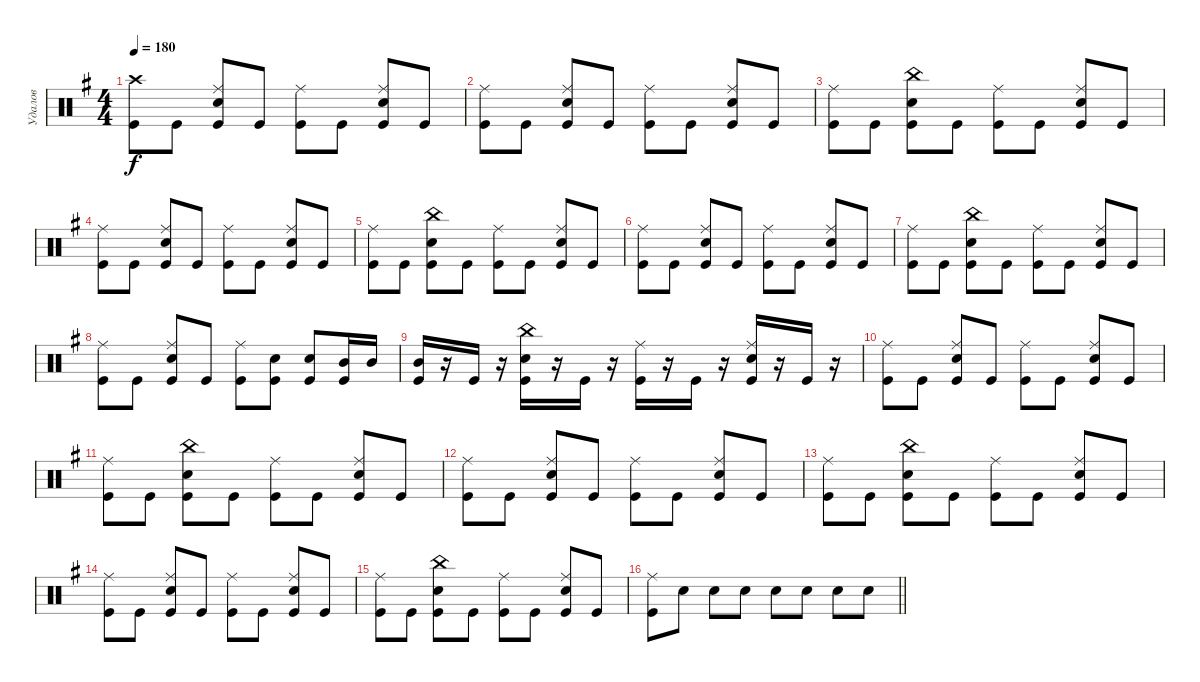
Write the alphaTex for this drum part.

\track ("Удалов" "Удалов") {instrument percussion}
\staff {score}
\articulation defaults
\ts (4 4)
\tempo 180
\clef neutral
\ks g
("Crash high (hit)" "Kick (hit)").8{dy f} "Kick (hit)".8 ("Ride (middle)" "Electric Snare (hit)" "Kick (hit)").8 "Kick (hit)".8 ("Ride (middle)" "Kick (hit)").8 "Kick (hit)".8 ("Ride (middle)" "Electric Snare (hit)" "Kick (hit)").8 "Kick (hit)".8 |
("Ride (middle)" "Kick (hit)").8 "Kick (hit)".8 ("Ride (middle)" "Electric Snare (hit)" "Kick (hit)").8 "Kick (hit)".8 ("Ride (middle)" "Kick (hit)").8 "Kick (hit)".8 ("Ride (middle)" "Electric Snare (hit)" "Kick (hit)").8 "Kick (hit)".8 |
("Ride (middle)" "Kick (hit)").8 "Kick (hit)".8 ("China (hit)" "Electric Snare (hit)" "Kick (hit)").8 "Kick (hit)".8 ("Ride (middle)" "Kick (hit)").8 "Kick (hit)".8 ("Ride (middle)" "Electric Snare (hit)" "Kick (hit)").8 "Kick (hit)".8 |
("Ride (middle)" "Kick (hit)").8 "Kick (hit)".8 ("Ride (middle)" "Electric Snare (hit)" "Kick (hit)").8 "Kick (hit)".8 ("Ride (middle)" "Kick (hit)").8 "Kick (hit)".8 ("Ride (middle)" "Electric Snare (hit)" "Kick (hit)").8 "Kick (hit)".8 |
("Ride (middle)" "Kick (hit)").8 "Kick (hit)".8 ("China (hit)" "Electric Snare (hit)" "Kick (hit)").8 "Kick (hit)".8 ("Ride (middle)" "Kick (hit)").8 "Kick (hit)".8 ("Ride (middle)" "Electric Snare (hit)" "Kick (hit)").8 "Kick (hit)".8 |
("Ride (middle)" "Kick (hit)").8 "Kick (hit)".8 ("Ride (middle)" "Electric Snare (hit)" "Kick (hit)").8 "Kick (hit)".8 ("Ride (middle)" "Kick (hit)").8 "Kick (hit)".8 ("Ride (middle)" "Electric Snare (hit)" "Kick (hit)").8 "Kick (hit)".8 |
("Ride (middle)" "Kick (hit)").8 "Kick (hit)".8 ("China (hit)" "Electric Snare (hit)" "Kick (hit)").8 "Kick (hit)".8 ("Ride (middle)" "Kick (hit)").8 "Kick (hit)".8 ("Ride (middle)" "Electric Snare (hit)" "Kick (hit)").8 "Kick (hit)".8 |
("Ride (middle)" "Kick (hit)").8 "Kick (hit)".8 ("Ride (middle)" "Electric Snare (hit)" "Kick (hit)").8 "Kick (hit)".8 ("Ride (middle)" "Kick (hit)").8 ("Electric Snare (hit)" "Kick (hit)").8 ("Electric Snare (hit)" "Kick (hit)").8 ("Mid Tom (hit)" "Kick (hit)").16 "Mid Tom (hit)".16 |
("Mid Tom (hit)" "Kick (hit)").16 r.16 "Kick (hit)".16 r.16 ("China (hit)" "Electric Snare (hit)" "Kick (hit)").16 r.16 "Kick (hit)".16 r.16 ("Ride (middle)" "Kick (hit)").16 r.16 "Kick (hit)".16 r.16 ("Ride (middle)" "Electric Snare (hit)" "Kick (hit)").16 r.16 "Kick (hit)".16 r.16 |
("Ride (middle)" "Kick (hit)").8 "Kick (hit)".8 ("Ride (middle)" "Electric Snare (hit)" "Kick (hit)").8 "Kick (hit)".8 ("Ride (middle)" "Kick (hit)").8 "Kick (hit)".8 ("Ride (middle)" "Electric Snare (hit)" "Kick (hit)").8 "Kick (hit)".8 |
("Ride (middle)" "Kick (hit)").8 "Kick (hit)".8 ("China (hit)" "Electric Snare (hit)" "Kick (hit)").8 "Kick (hit)".8 ("Ride (middle)" "Kick (hit)").8 "Kick (hit)".8 ("Ride (middle)" "Electric Snare (hit)" "Kick (hit)").8 "Kick (hit)".8 |
("Ride (middle)" "Kick (hit)").8 "Kick (hit)".8 ("Ride (middle)" "Electric Snare (hit)" "Kick (hit)").8 "Kick (hit)".8 ("Ride (middle)" "Kick (hit)").8 "Kick (hit)".8 ("Ride (middle)" "Electric Snare (hit)" "Kick (hit)").8 "Kick (hit)".8 |
("Ride (middle)" "Kick (hit)").8 "Kick (hit)".8 ("China (hit)" "Electric Snare (hit)" "Kick (hit)").8 "Kick (hit)".8 ("Ride (middle)" "Kick (hit)").8 "Kick (hit)".8 ("Ride (middle)" "Electric Snare (hit)" "Kick (hit)").8 "Kick (hit)".8 |
("Ride (middle)" "Kick (hit)").8 "Kick (hit)".8 ("Ride (middle)" "Electric Snare (hit)" "Kick (hit)").8 "Kick (hit)".8 ("Ride (middle)" "Kick (hit)").8 "Kick (hit)".8 ("Ride (middle)" "Electric Snare (hit)" "Kick (hit)").8 "Kick (hit)".8 |
("Ride (middle)" "Kick (hit)").8 "Kick (hit)".8 ("China (hit)" "Electric Snare (hit)" "Kick (hit)").8 "Kick (hit)".8 ("Ride (middle)" "Kick (hit)").8 "Kick (hit)".8 ("Ride (middle)" "Electric Snare (hit)" "Kick (hit)").8 "Kick (hit)".8 |
\barLineRight lightlight
("Ride (middle)" "Kick (hit)").8 "Electric Snare (hit)".8 "Electric Snare (hit)".8 "Electric Snare (hit)".8 "Electric Snare (hit)".8 "Electric Snare (hit)".8 "Electric Snare (hit)".8 "Electric Snare (hit)".8
